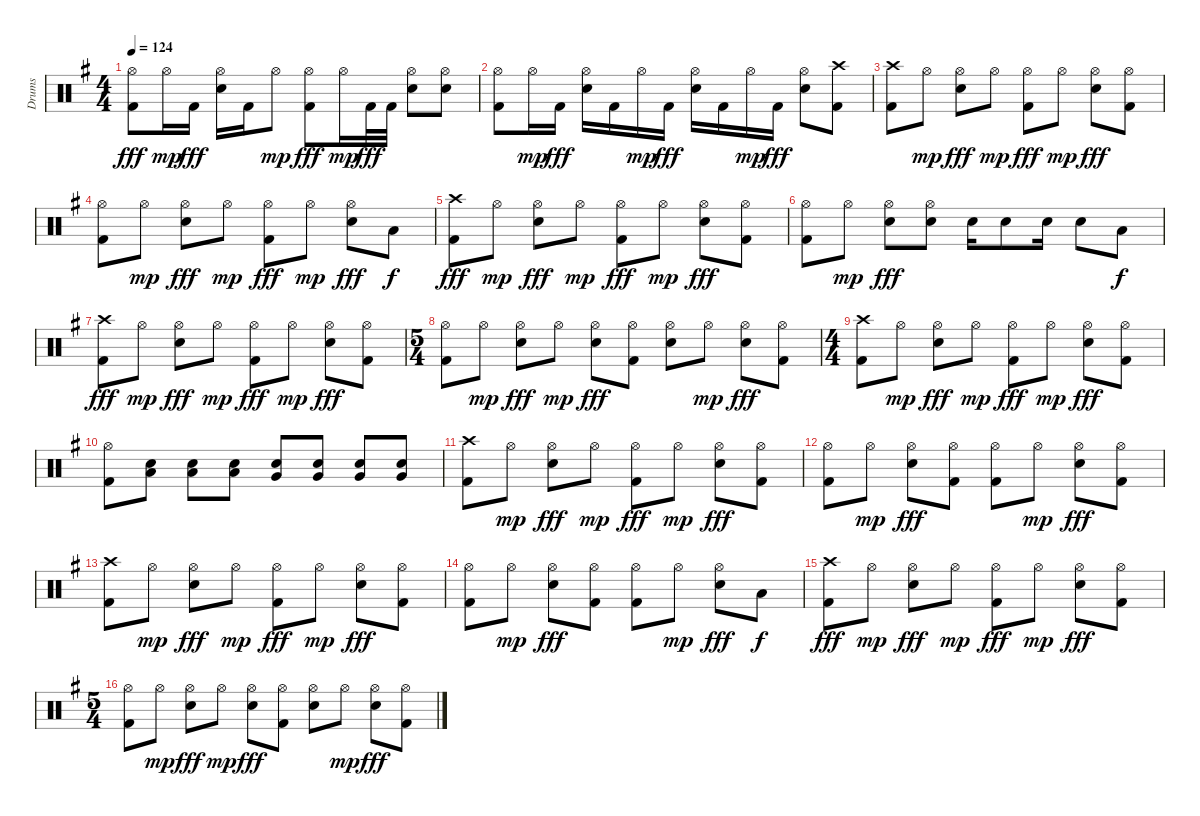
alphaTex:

\track ("Drums" "Drums") {instrument percussion}
\staff {score}
\articulation defaults
\ts (4 4)
\tempo 124
\clef neutral
\ks g
("Hi-Hat (open)" "Kick (hit) 2").8{dy fff} "Hi-Hat (open)".16{dy mp} "Kick (hit) 2".16{dy fff} ("Hi-Hat (open)" "Electric Snare (hit)").16 "Kick (hit) 2".16 "Hi-Hat (open)".8{dy mp} ("Hi-Hat (open)" "Kick (hit) 2").8{dy fff} "Hi-Hat (open)".16{dy mp} "Kick (hit) 2".32{dy fff} "Kick (hit) 2".32 ("Hi-Hat (open)" "Electric Snare (hit)").8 ("Hi-Hat (open)" "Electric Snare (hit)").8 |
("Hi-Hat (open)" "Kick (hit) 2").8 "Hi-Hat (open)".16{dy mp} "Kick (hit) 2".16{dy fff} ("Hi-Hat (open)" "Electric Snare (hit)").16 "Kick (hit) 2".16 "Hi-Hat (open)".16{dy mp} "Kick (hit) 2".16{dy fff} ("Hi-Hat (open)" "Electric Snare (hit)").16 "Kick (hit) 2".16 "Hi-Hat (open)".16{dy mp} "Kick (hit) 2".16{dy fff} ("Hi-Hat (open)" "Electric Snare (hit)").8 ("Crash high (hit)" "Kick (hit) 2").8 |
("Crash high (hit)" "Kick (hit) 2").8 "Hi-Hat (open)".8{dy mp} ("Hi-Hat (open)" "Electric Snare (hit)").8{dy fff} "Hi-Hat (open)".8{dy mp} ("Hi-Hat (open)" "Kick (hit) 2").8{dy fff} "Hi-Hat (open)".8{dy mp} ("Hi-Hat (open)" "Electric Snare (hit)").8{dy fff} ("Hi-Hat (open)" "Kick (hit) 2").8 |
("Hi-Hat (open)" "Kick (hit) 2").8 "Hi-Hat (open)".8{dy mp} ("Hi-Hat (open)" "Electric Snare (hit)").8{dy fff} "Hi-Hat (open)".8{dy mp} ("Hi-Hat (open)" "Kick (hit) 2").8{dy fff} "Hi-Hat (open)".8{dy mp} ("Hi-Hat (open)" "Electric Snare (hit)").8{dy fff} "Low Tom (hit)".8{dy f} |
("Crash high (hit)" "Kick (hit) 2").8{dy fff} "Hi-Hat (open)".8{dy mp} ("Hi-Hat (open)" "Electric Snare (hit)").8{dy fff} "Hi-Hat (open)".8{dy mp} ("Hi-Hat (open)" "Kick (hit) 2").8{dy fff} "Hi-Hat (open)".8{dy mp} ("Hi-Hat (open)" "Electric Snare (hit)").8{dy fff} ("Hi-Hat (open)" "Kick (hit) 2").8 |
("Hi-Hat (open)" "Kick (hit) 2").8 "Hi-Hat (open)".8{dy mp} ("Hi-Hat (open)" "Electric Snare (hit)").8{dy fff} ("Hi-Hat (open)" "Electric Snare (hit)").8 "Electric Snare (hit)".16 "Electric Snare (hit)".8 "Electric Snare (hit)".16 "Electric Snare (hit)".8 "Low Tom (hit)".8{dy f} |
("Crash high (hit)" "Kick (hit) 2").8{dy fff} "Hi-Hat (open)".8{dy mp} ("Hi-Hat (open)" "Electric Snare (hit)").8{dy fff} "Hi-Hat (open)".8{dy mp} ("Hi-Hat (open)" "Kick (hit) 2").8{dy fff} "Hi-Hat (open)".8{dy mp} ("Hi-Hat (open)" "Electric Snare (hit)").8{dy fff} ("Hi-Hat (open)" "Kick (hit) 2").8 |
\ts (5 4)
("Hi-Hat (open)" "Kick (hit) 2").8 "Hi-Hat (open)".8{dy mp} ("Hi-Hat (open)" "Electric Snare (hit)").8{dy fff} "Hi-Hat (open)".8{dy mp} ("Hi-Hat (open)" "Electric Snare (hit)").8{dy fff} ("Hi-Hat (open)" "Kick (hit) 2").8 ("Hi-Hat (open)" "Electric Snare (hit)").8 "Hi-Hat (open)".8{dy mp} ("Hi-Hat (open)" "Electric Snare (hit)").8{dy fff} ("Hi-Hat (open)" "Kick (hit) 2").8 |
\ts (4 4)
("Crash high (hit)" "Kick (hit) 2").8 "Hi-Hat (open)".8{dy mp} ("Hi-Hat (open)" "Electric Snare (hit)").8{dy fff} "Hi-Hat (open)".8{dy mp} ("Hi-Hat (open)" "Kick (hit) 2").8{dy fff} "Hi-Hat (open)".8{dy mp} ("Hi-Hat (open)" "Electric Snare (hit)").8{dy fff} ("Hi-Hat (open)" "Kick (hit) 2").8 |
("Hi-Hat (open)" "Kick (hit) 2").8 ("Low Tom (hit)" "Electric Snare (hit)").8 ("Low Tom (hit)" "Electric Snare (hit)").8 ("Low Tom (hit)" "Electric Snare (hit)").8 ("Very Low Tom (hit)" "Electric Snare (hit)").8 ("Very Low Tom (hit)" "Electric Snare (hit)").8 ("Very Low Tom (hit)" "Electric Snare (hit)").8 ("Very Low Tom (hit)" "Electric Snare (hit)").8 |
("Crash high (hit)" "Kick (hit) 2").8 "Hi-Hat (open)".8{dy mp} ("Hi-Hat (open)" "Electric Snare (hit)").8{dy fff} "Hi-Hat (open)".8{dy mp} ("Hi-Hat (open)" "Kick (hit) 2").8{dy fff} "Hi-Hat (open)".8{dy mp} ("Hi-Hat (open)" "Electric Snare (hit)").8{dy fff} ("Hi-Hat (open)" "Kick (hit) 2").8 |
("Hi-Hat (open)" "Kick (hit) 2").8 "Hi-Hat (open)".8{dy mp} ("Hi-Hat (open)" "Electric Snare (hit)").8{dy fff} ("Hi-Hat (open)" "Kick (hit) 2").8 ("Hi-Hat (open)" "Kick (hit) 2").8 "Hi-Hat (open)".8{dy mp} ("Hi-Hat (open)" "Electric Snare (hit)").8{dy fff} ("Hi-Hat (open)" "Kick (hit) 2").8 |
("Crash high (hit)" "Kick (hit) 2").8 "Hi-Hat (open)".8{dy mp} ("Hi-Hat (open)" "Electric Snare (hit)").8{dy fff} "Hi-Hat (open)".8{dy mp} ("Hi-Hat (open)" "Kick (hit) 2").8{dy fff} "Hi-Hat (open)".8{dy mp} ("Hi-Hat (open)" "Electric Snare (hit)").8{dy fff} ("Hi-Hat (open)" "Kick (hit) 2").8 |
("Hi-Hat (open)" "Kick (hit) 2").8 "Hi-Hat (open)".8{dy mp} ("Hi-Hat (open)" "Electric Snare (hit)").8{dy fff} ("Hi-Hat (open)" "Kick (hit) 2").8 ("Hi-Hat (open)" "Kick (hit) 2").8 "Hi-Hat (open)".8{dy mp} ("Hi-Hat (open)" "Electric Snare (hit)").8{dy fff} "Low Tom (hit)".8{dy f} |
("Crash high (hit)" "Kick (hit) 2").8{dy fff} "Hi-Hat (open)".8{dy mp} ("Hi-Hat (open)" "Electric Snare (hit)").8{dy fff} "Hi-Hat (open)".8{dy mp} ("Hi-Hat (open)" "Kick (hit) 2").8{dy fff} "Hi-Hat (open)".8{dy mp} ("Hi-Hat (open)" "Electric Snare (hit)").8{dy fff} ("Hi-Hat (open)" "Kick (hit) 2").8 |
\ts (5 4)
("Hi-Hat (open)" "Kick (hit) 2").8 "Hi-Hat (open)".8{dy mp} ("Hi-Hat (open)" "Electric Snare (hit)").8{dy fff} "Hi-Hat (open)".8{dy mp} ("Hi-Hat (open)" "Electric Snare (hit)").8{dy fff} ("Hi-Hat (open)" "Kick (hit) 2").8 ("Hi-Hat (open)" "Electric Snare (hit)").8 "Hi-Hat (open)".8{dy mp} ("Hi-Hat (open)" "Electric Snare (hit)").8{dy fff} ("Hi-Hat (open)" "Kick (hit) 2").8
